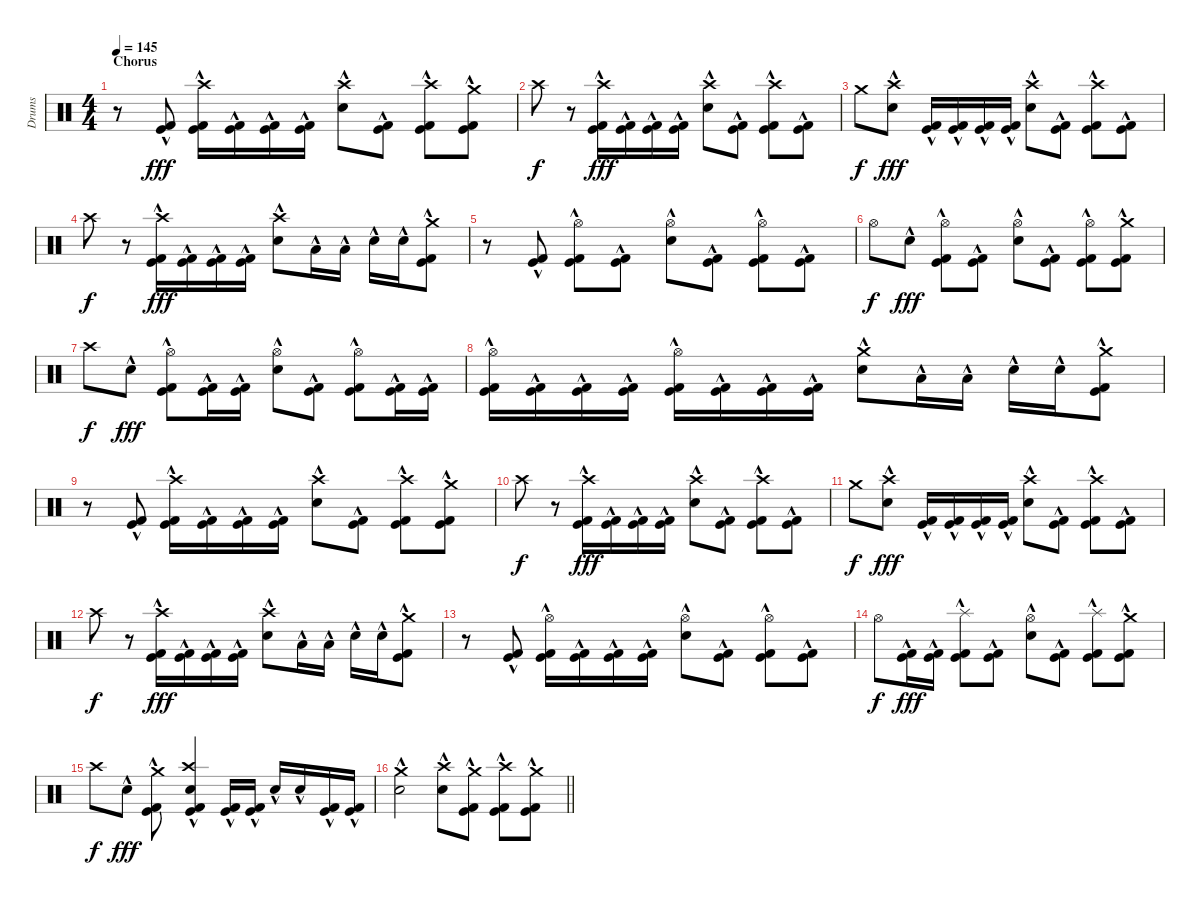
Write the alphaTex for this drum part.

\track ("Drums" "Drums") {instrument percussion}
\staff {score}
\articulation defaults
\ts (4 4)
\section ("" "Chorus")
\tempo 145
\clef neutral
\ks c
r.8{dy fff} ("Kick (hit)"{hac} "Kick (hit) 2"{hac}).8 ("Crash high (hit)" "Kick (hit)"{hac} "Kick (hit) 2"{hac}).16 ("Kick (hit)"{hac} "Kick (hit) 2"{hac}).16 ("Kick (hit)"{hac} "Kick (hit) 2"{hac}).16 ("Kick (hit)"{hac} "Kick (hit) 2"{hac}).16 ("Crash high (hit)" "Electric Snare (hit)"{hac}).8 ("Kick (hit)"{hac} "Kick (hit) 2"{hac}).8 ("Crash high (hit)" "Kick (hit)"{hac} "Kick (hit) 2"{hac}).8 ("Crash medium (hit)" "Kick (hit)"{hac} "Kick (hit) 2"{hac}).8 |
"Crash high (hit)".8{dy f} r.8 ("Crash high (hit)" "Kick (hit)"{hac} "Kick (hit) 2"{hac}).16{dy fff} ("Kick (hit)"{hac} "Kick (hit) 2"{hac}).16 ("Kick (hit)"{hac} "Kick (hit) 2"{hac}).16 ("Kick (hit)"{hac} "Kick (hit) 2"{hac}).16 ("Crash high (hit)" "Electric Snare (hit)"{hac}).8 ("Kick (hit)"{hac} "Kick (hit) 2"{hac}).8 ("Crash high (hit)" "Kick (hit)"{hac} "Kick (hit) 2"{hac}).8 ("Kick (hit)"{hac} "Kick (hit) 2"{hac}).8 |
"Crash medium (hit)".8{dy f} ("Crash high (hit)" "Electric Snare (hit)"{hac}).8{dy fff} ("Kick (hit)"{hac} "Kick (hit) 2"{hac}).16 ("Kick (hit)"{hac} "Kick (hit) 2"{hac}).16 ("Kick (hit)"{hac} "Kick (hit) 2"{hac}).16 ("Kick (hit)"{hac} "Kick (hit) 2"{hac}).16 ("Crash high (hit)" "Electric Snare (hit)"{hac}).8 ("Kick (hit)"{hac} "Kick (hit) 2"{hac}).8 ("Crash high (hit)" "Kick (hit)"{hac} "Kick (hit) 2"{hac}).8 ("Kick (hit)"{hac} "Kick (hit) 2"{hac}).8 |
"Crash high (hit)".8{dy f} r.8 ("Crash high (hit)" "Kick (hit)"{hac} "Kick (hit) 2"{hac}).16{dy fff} ("Kick (hit)"{hac} "Kick (hit) 2"{hac}).16 ("Kick (hit)"{hac} "Kick (hit) 2"{hac}).16 ("Kick (hit)"{hac} "Kick (hit) 2"{hac}).16 ("Crash high (hit)" "Electric Snare (hit)"{hac}).8 "Low Tom (hit)"{hac}.16 "Low Tom (hit)"{hac}.16 "Electric Snare (hit)"{hac}.16 "Electric Snare (hit)"{hac}.16 ("Crash medium (hit)" "Kick (hit)"{hac} "Kick (hit) 2"{hac}).8 |
r.8 ("Kick (hit)"{hac} "Kick (hit) 2"{hac}).8 ("Hi-Hat (open)" "Kick (hit)"{hac} "Kick (hit) 2"{hac}).8 ("Kick (hit)"{hac} "Kick (hit) 2"{hac}).8 ("Hi-Hat (open)" "Electric Snare (hit)"{hac}).8 ("Kick (hit)"{hac} "Kick (hit) 2"{hac}).8 ("Hi-Hat (open)" "Kick (hit)"{hac} "Kick (hit) 2"{hac}).8 ("Kick (hit)"{hac} "Kick (hit) 2"{hac}).8 |
"Hi-Hat (open)".8{dy f} "Electric Snare (hit)"{hac}.8{dy fff} ("Hi-Hat (open)" "Kick (hit)"{hac} "Kick (hit) 2"{hac}).8 ("Kick (hit)"{hac} "Kick (hit) 2"{hac}).8 ("Hi-Hat (open)" "Electric Snare (hit)"{hac}).8 ("Kick (hit)"{hac} "Kick (hit) 2"{hac}).8 ("Hi-Hat (open)" "Kick (hit)"{hac} "Kick (hit) 2"{hac}).8 ("Crash medium (hit)" "Kick (hit)"{hac} "Kick (hit) 2"{hac}).8 |
"Crash high (hit)".8{dy f} "Electric Snare (hit)"{hac}.8{dy fff} ("Hi-Hat (open)" "Kick (hit)"{hac} "Kick (hit) 2"{hac}).8 ("Kick (hit)"{hac} "Kick (hit) 2"{hac}).16 ("Kick (hit)"{hac} "Kick (hit) 2"{hac}).16 ("Hi-Hat (open)" "Electric Snare (hit)"{hac}).8 ("Kick (hit)"{hac} "Kick (hit) 2"{hac}).8 ("Hi-Hat (open)" "Kick (hit)"{hac} "Kick (hit) 2"{hac}).8 ("Kick (hit)"{hac} "Kick (hit) 2"{hac}).16 ("Kick (hit)"{hac} "Kick (hit) 2"{hac}).16 |
("Hi-Hat (open)" "Kick (hit)"{hac} "Kick (hit) 2"{hac}).16 ("Kick (hit)"{hac} "Kick (hit) 2"{hac}).16 ("Kick (hit)"{hac} "Kick (hit) 2"{hac}).16 ("Kick (hit)"{hac} "Kick (hit) 2"{hac}).16 ("Hi-Hat (open)" "Kick (hit)"{hac} "Kick (hit) 2"{hac}).16 ("Kick (hit)"{hac} "Kick (hit) 2"{hac}).16 ("Kick (hit)"{hac} "Kick (hit) 2"{hac}).16 ("Kick (hit)"{hac} "Kick (hit) 2"{hac}).16 ("Crash medium (hit)" "Electric Snare (hit)"{hac}).8 "Low Tom (hit)"{hac}.16 "Low Tom (hit)"{hac}.16 "Electric Snare (hit)"{hac}.16 "Electric Snare (hit)"{hac}.16 ("Crash medium (hit)" "Kick (hit)"{hac} "Kick (hit) 2"{hac}).8 |
r.8 ("Kick (hit)"{hac} "Kick (hit) 2"{hac}).8 ("Crash high (hit)" "Kick (hit)"{hac} "Kick (hit) 2"{hac}).16 ("Kick (hit)"{hac} "Kick (hit) 2"{hac}).16 ("Kick (hit)"{hac} "Kick (hit) 2"{hac}).16 ("Kick (hit)"{hac} "Kick (hit) 2"{hac}).16 ("Crash high (hit)" "Electric Snare (hit)"{hac}).8 ("Kick (hit)"{hac} "Kick (hit) 2"{hac}).8 ("Crash high (hit)" "Kick (hit)"{hac} "Kick (hit) 2"{hac}).8 ("Crash medium (hit)" "Kick (hit)"{hac} "Kick (hit) 2"{hac}).8 |
"Crash high (hit)".8{dy f} r.8 ("Crash high (hit)" "Kick (hit)"{hac} "Kick (hit) 2"{hac}).16{dy fff} ("Kick (hit)"{hac} "Kick (hit) 2"{hac}).16 ("Kick (hit)"{hac} "Kick (hit) 2"{hac}).16 ("Kick (hit)"{hac} "Kick (hit) 2"{hac}).16 ("Crash high (hit)" "Electric Snare (hit)"{hac}).8 ("Kick (hit)"{hac} "Kick (hit) 2"{hac}).8 ("Crash high (hit)" "Kick (hit)"{hac} "Kick (hit) 2"{hac}).8 ("Kick (hit)"{hac} "Kick (hit) 2"{hac}).8 |
"Crash medium (hit)".8{dy f} ("Crash high (hit)" "Electric Snare (hit)"{hac}).8{dy fff} ("Kick (hit)"{hac} "Kick (hit) 2"{hac}).16 ("Kick (hit)"{hac} "Kick (hit) 2"{hac}).16 ("Kick (hit)"{hac} "Kick (hit) 2"{hac}).16 ("Kick (hit)"{hac} "Kick (hit) 2"{hac}).16 ("Crash high (hit)" "Electric Snare (hit)"{hac}).8 ("Kick (hit)"{hac} "Kick (hit) 2"{hac}).8 ("Crash high (hit)" "Kick (hit)"{hac} "Kick (hit) 2"{hac}).8 ("Kick (hit)"{hac} "Kick (hit) 2"{hac}).8 |
"Crash high (hit)".8{dy f} r.8 ("Crash high (hit)" "Kick (hit)"{hac} "Kick (hit) 2"{hac}).16{dy fff} ("Kick (hit)"{hac} "Kick (hit) 2"{hac}).16 ("Kick (hit)"{hac} "Kick (hit) 2"{hac}).16 ("Kick (hit)"{hac} "Kick (hit) 2"{hac}).16 ("Crash high (hit)" "Electric Snare (hit)"{hac}).8 "Low Tom (hit)"{hac}.16 "Low Tom (hit)"{hac}.16 "Electric Snare (hit)"{hac}.16 "Electric Snare (hit)"{hac}.16 ("Crash medium (hit)" "Kick (hit)"{hac} "Kick (hit) 2"{hac}).8 |
r.8 ("Kick (hit)"{hac} "Kick (hit) 2"{hac}).8 ("Hi-Hat (open)" "Kick (hit)"{hac} "Kick (hit) 2"{hac}).16 ("Kick (hit)"{hac} "Kick (hit) 2"{hac}).16 ("Kick (hit)"{hac} "Kick (hit) 2"{hac}).16 ("Kick (hit)"{hac} "Kick (hit) 2"{hac}).16 ("Hi-Hat (open)" "Electric Snare (hit)"{hac}).8 ("Kick (hit)"{hac} "Kick (hit) 2"{hac}).8 ("Hi-Hat (open)" "Kick (hit)"{hac} "Kick (hit) 2"{hac}).8 ("Kick (hit)"{hac} "Kick (hit) 2"{hac}).8 |
"Hi-Hat (open)".8{dy f} ("Kick (hit)"{hac} "Kick (hit) 2"{hac}).16{dy fff} ("Kick (hit)"{hac} "Kick (hit) 2"{hac}).16 ("Splash (hit)" "Kick (hit)"{hac} "Kick (hit) 2"{hac}).8 ("Kick (hit)"{hac} "Kick (hit) 2"{hac}).8 ("Hi-Hat (open)" "Electric Snare (hit)"{hac}).8 ("Kick (hit)"{hac} "Kick (hit) 2"{hac}).8 ("Splash (hit)" "Kick (hit)"{hac} "Kick (hit) 2"{hac}).8 ("Crash medium (hit)" "Kick (hit)"{hac} "Kick (hit) 2"{hac}).8 |
"Crash high (hit)".8{dy f} "Electric Snare (hit)"{hac}.8{dy fff} ("Crash medium (hit)" "Kick (hit)"{hac} "Kick (hit) 2"{hac}).8 ("Crash high (hit)" "Electric Snare (hit)"{hac} "Kick (hit)"{hac} "Kick (hit) 2"{hac}).4 ("Kick (hit)"{hac} "Kick (hit) 2"{hac}).16 ("Kick (hit)"{hac} "Kick (hit) 2"{hac}).16 "Electric Snare (hit)"{hac}.16 "Electric Snare (hit)"{hac}.16 ("Kick (hit)"{hac} "Kick (hit) 2"{hac}).16 ("Kick (hit)"{hac} "Kick (hit) 2"{hac}).16 |
\barLineRight lightlight
("Crash medium (hit)" "Electric Snare (hit)"{hac}).2 ("Crash high (hit)" "Electric Snare (hit)"{hac}).8 ("Crash medium (hit)" "Kick (hit)"{hac} "Kick (hit) 2"{hac}).8 ("Crash high (hit)" "Kick (hit)"{hac} "Kick (hit) 2"{hac}).8 ("Crash medium (hit)" "Kick (hit)"{hac} "Kick (hit) 2"{hac}).8
